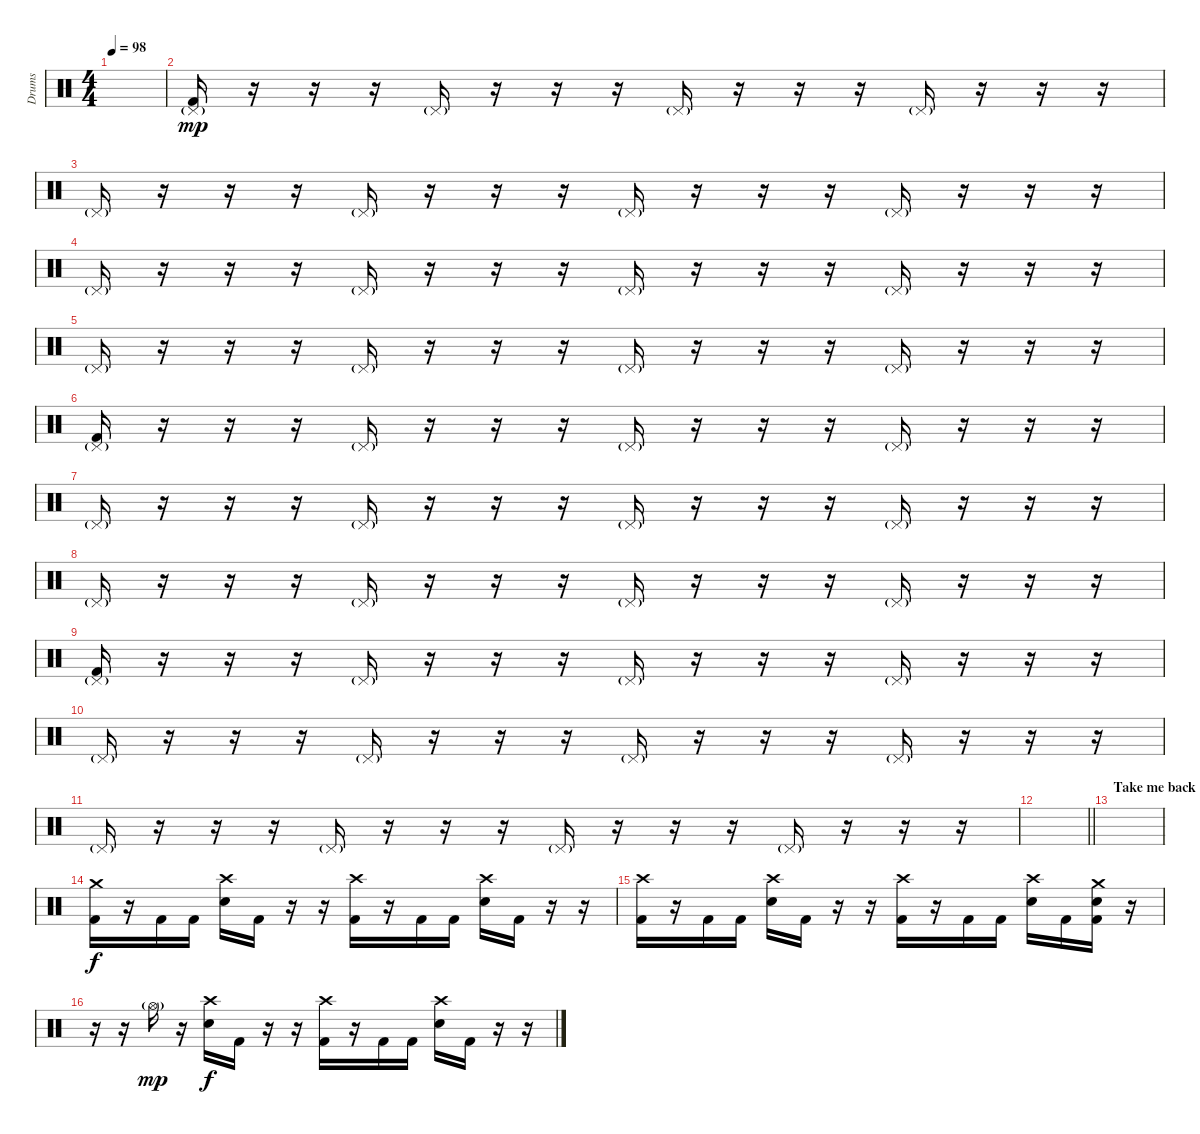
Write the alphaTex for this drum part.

\track ("Drums" "Drums") {instrument percussion}
\staff {score}
\articulation defaults
\ts (4 4)
\tempo 98
\clef neutral
\ks c
|
("Pedal Hi-Hat (hit)"{g} "Kick (hit) 2").16{dy mp} r.16 r.16 r.16 "Pedal Hi-Hat (hit)"{g}.16 r.16 r.16 r.16 "Pedal Hi-Hat (hit)"{g}.16 r.16 r.16 r.16 "Pedal Hi-Hat (hit)"{g}.16 r.16 r.16 r.16 |
"Pedal Hi-Hat (hit)"{g}.16 r.16 r.16 r.16 "Pedal Hi-Hat (hit)"{g}.16 r.16 r.16 r.16 "Pedal Hi-Hat (hit)"{g}.16 r.16 r.16 r.16 "Pedal Hi-Hat (hit)"{g}.16 r.16 r.16 r.16 |
"Pedal Hi-Hat (hit)"{g}.16 r.16 r.16 r.16 "Pedal Hi-Hat (hit)"{g}.16 r.16 r.16 r.16 "Pedal Hi-Hat (hit)"{g}.16 r.16 r.16 r.16 "Pedal Hi-Hat (hit)"{g}.16 r.16 r.16 r.16 |
"Pedal Hi-Hat (hit)"{g}.16 r.16 r.16 r.16 "Pedal Hi-Hat (hit)"{g}.16 r.16 r.16 r.16 "Pedal Hi-Hat (hit)"{g}.16 r.16 r.16 r.16 "Pedal Hi-Hat (hit)"{g}.16 r.16 r.16 r.16 |
("Pedal Hi-Hat (hit)"{g} "Kick (hit) 2").16 r.16 r.16 r.16 "Pedal Hi-Hat (hit)"{g}.16 r.16 r.16 r.16 "Pedal Hi-Hat (hit)"{g}.16 r.16 r.16 r.16 "Pedal Hi-Hat (hit)"{g}.16 r.16 r.16 r.16 |
"Pedal Hi-Hat (hit)"{g}.16 r.16 r.16 r.16 "Pedal Hi-Hat (hit)"{g}.16 r.16 r.16 r.16 "Pedal Hi-Hat (hit)"{g}.16 r.16 r.16 r.16 "Pedal Hi-Hat (hit)"{g}.16 r.16 r.16 r.16 |
"Pedal Hi-Hat (hit)"{g}.16 r.16 r.16 r.16 "Pedal Hi-Hat (hit)"{g}.16 r.16 r.16 r.16 "Pedal Hi-Hat (hit)"{g}.16 r.16 r.16 r.16 "Pedal Hi-Hat (hit)"{g}.16 r.16 r.16 r.16 |
("Pedal Hi-Hat (hit)"{g} "Kick (hit) 2").16 r.16 r.16 r.16 "Pedal Hi-Hat (hit)"{g}.16 r.16 r.16 r.16 "Pedal Hi-Hat (hit)"{g}.16 r.16 r.16 r.16 "Pedal Hi-Hat (hit)"{g}.16 r.16 r.16 r.16 |
"Pedal Hi-Hat (hit)"{g}.16 r.16 r.16 r.16 "Pedal Hi-Hat (hit)"{g}.16 r.16 r.16 r.16 "Pedal Hi-Hat (hit)"{g}.16 r.16 r.16 r.16 "Pedal Hi-Hat (hit)"{g}.16 r.16 r.16 r.16 |
"Pedal Hi-Hat (hit)"{g}.16 r.16 r.16 r.16 "Pedal Hi-Hat (hit)"{g}.16 r.16 r.16 r.16 "Pedal Hi-Hat (hit)"{g}.16 r.16 r.16 r.16 "Pedal Hi-Hat (hit)"{g}.16 r.16 r.16 r.16 |
\barLineRight lightlight
|
\section ("" "Take me back")
|
("Crash medium (hit)" "Kick (hit) 2").16{dy f} r.16 "Kick (hit) 2".16 "Kick (hit) 2".16 ("Crash high (hit)" "Electric Snare (hit)").16 "Kick (hit) 2".16 r.16 r.16 ("Crash high (hit)" "Kick (hit) 2").16 r.16 "Kick (hit) 2".16 "Kick (hit) 2".16 ("Crash high (hit)" "Electric Snare (hit)").16 "Kick (hit) 2".16 r.16 r.16 |
("Crash high (hit)" "Kick (hit) 2").16 r.16 "Kick (hit) 2".16 "Kick (hit) 2".16 ("Crash high (hit)" "Electric Snare (hit)").16 "Kick (hit) 2".16 r.16 r.16 ("Crash high (hit)" "Kick (hit) 2").16 r.16 "Kick (hit) 2".16 "Kick (hit) 2".16 ("Crash high (hit)" "Electric Snare (hit)").16 "Kick (hit) 2".16 ("Crash medium (hit)" "Electric Snare (hit)" "Kick (hit) 2").16 r.16 |
r.16 r.16 "Hi-Hat (open)"{g}.16{dy mp} r.16 ("Crash high (hit)" "Electric Snare (hit)").16{dy f} "Kick (hit) 2".16 r.16 r.16 ("Crash high (hit)" "Kick (hit) 2").16 r.16 "Kick (hit) 2".16 "Kick (hit) 2".16 ("Crash high (hit)" "Electric Snare (hit)").16 "Kick (hit) 2".16 r.16 r.16
